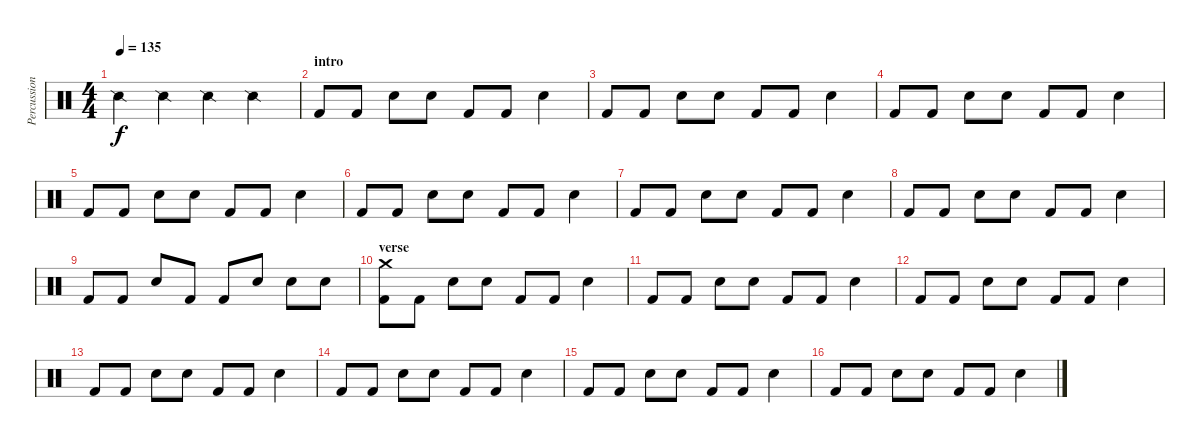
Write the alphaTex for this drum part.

\track ("Percussion" "Percussion") {instrument percussion}
\staff {score}
\articulation defaults
\ts (4 4)
\tempo 135
\clef neutral
\ks c "Snare (side stick) 2".4{dy f} "Snare (side stick) 2".4 "Snare (side stick) 2".4 "Snare (side stick) 2".4
|
\section ("" "intro")
"Kick (hit) 2".8 "Kick (hit) 2".8 "Snare (hit) 2".8 "Snare (hit) 2".8 "Kick (hit) 2".8 "Kick (hit) 2".8 "Snare (hit) 2".4 |
"Kick (hit) 2".8 "Kick (hit) 2".8 "Snare (hit) 2".8 "Snare (hit) 2".8 "Kick (hit) 2".8 "Kick (hit) 2".8 "Snare (hit) 2".4 |
"Kick (hit) 2".8 "Kick (hit) 2".8 "Snare (hit) 2".8 "Snare (hit) 2".8 "Kick (hit) 2".8 "Kick (hit) 2".8 "Snare (hit) 2".4 |
"Kick (hit) 2".8 "Kick (hit) 2".8 "Snare (hit) 2".8 "Snare (hit) 2".8 "Kick (hit) 2".8 "Kick (hit) 2".8 "Snare (hit) 2".4 |
"Kick (hit) 2".8 "Kick (hit) 2".8 "Snare (hit) 2".8 "Snare (hit) 2".8 "Kick (hit) 2".8 "Kick (hit) 2".8 "Snare (hit) 2".4 |
"Kick (hit) 2".8 "Kick (hit) 2".8 "Snare (hit) 2".8 "Snare (hit) 2".8 "Kick (hit) 2".8 "Kick (hit) 2".8 "Snare (hit) 2".4 |
"Kick (hit) 2".8 "Kick (hit) 2".8 "Snare (hit) 2".8 "Snare (hit) 2".8 "Kick (hit) 2".8 "Kick (hit) 2".8 "Snare (hit) 2".4 |
"Kick (hit) 2".8 "Kick (hit) 2".8 "Snare (hit) 2".8 "Kick (hit) 2".8 "Kick (hit) 2".8 "Snare (hit) 2".8 "Snare (hit) 2".8 "Snare (hit) 2".8 |
\section ("" "verse")
("Kick (hit) 2" "Crash medium (hit)").8 "Kick (hit) 2".8 "Snare (hit) 2".8 "Snare (hit) 2".8 "Kick (hit) 2".8 "Kick (hit) 2".8 "Snare (hit) 2".4 |
"Kick (hit) 2".8 "Kick (hit) 2".8 "Snare (hit) 2".8 "Snare (hit) 2".8 "Kick (hit) 2".8 "Kick (hit) 2".8 "Snare (hit) 2".4 |
"Kick (hit) 2".8 "Kick (hit) 2".8 "Snare (hit) 2".8 "Snare (hit) 2".8 "Kick (hit) 2".8 "Kick (hit) 2".8 "Snare (hit) 2".4 |
"Kick (hit) 2".8 "Kick (hit) 2".8 "Snare (hit) 2".8 "Snare (hit) 2".8 "Kick (hit) 2".8 "Kick (hit) 2".8 "Snare (hit) 2".4 |
"Kick (hit) 2".8 "Kick (hit) 2".8 "Snare (hit) 2".8 "Snare (hit) 2".8 "Kick (hit) 2".8 "Kick (hit) 2".8 "Snare (hit) 2".4 |
"Kick (hit) 2".8 "Kick (hit) 2".8 "Snare (hit) 2".8 "Snare (hit) 2".8 "Kick (hit) 2".8 "Kick (hit) 2".8 "Snare (hit) 2".4 |
"Kick (hit) 2".8 "Kick (hit) 2".8 "Snare (hit) 2".8 "Snare (hit) 2".8 "Kick (hit) 2".8 "Kick (hit) 2".8 "Snare (hit) 2".4
